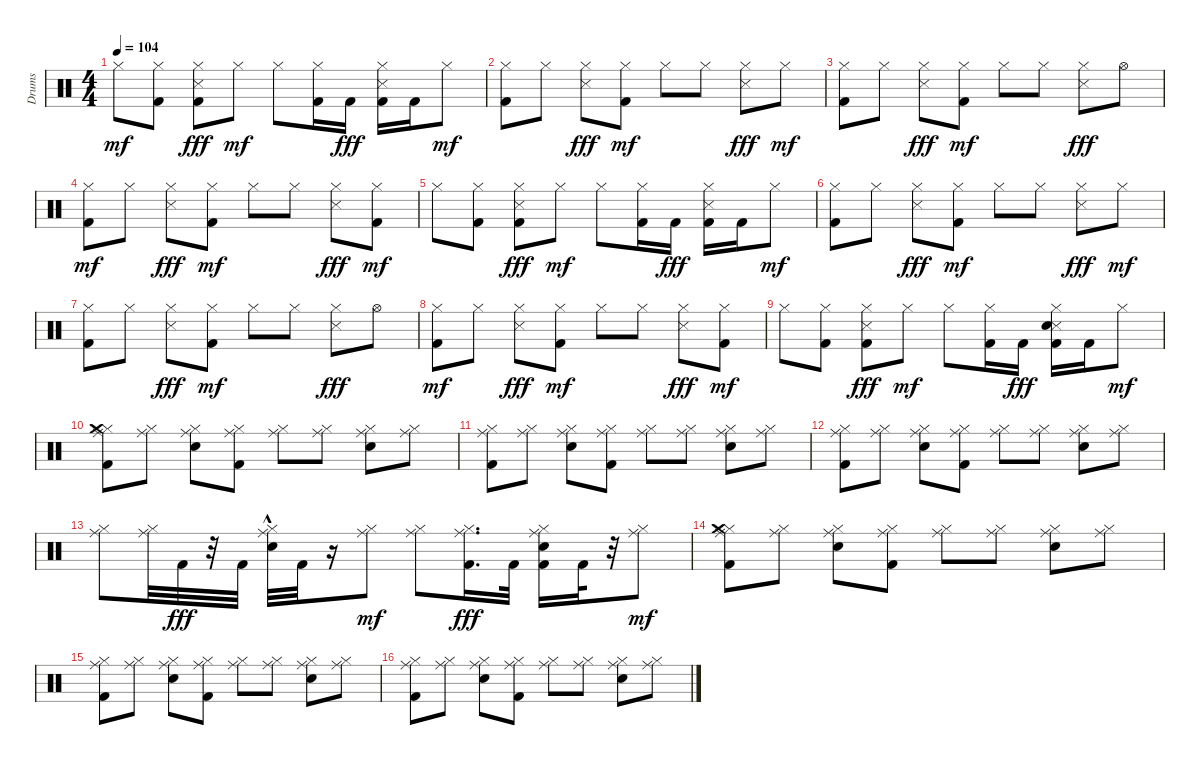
\track ("Drums" "Drums") {instrument percussion}
\staff {score}
\articulation defaults
\ts (4 4)
\tempo 104
\clef neutral
\ks c "Hi-Hat (closed)".8{dy mf}
("Kick (hit) 2" "Hi-Hat (closed)").8 ("Kick (hit) 2" "Hi-Hat (closed)" "Metronome (hit)").8{dy fff} "Hi-Hat (closed)".8{dy mf} "Hi-Hat (closed)".8 ("Kick (hit) 2" "Hi-Hat (closed)").16 "Kick (hit) 2".16{dy fff} ("Kick (hit) 2" "Hi-Hat (closed)" "Metronome (hit)").16 "Kick (hit) 2".16 "Hi-Hat (closed)".8{dy mf} |
("Kick (hit) 2" "Hi-Hat (closed)").8 "Hi-Hat (closed)".8 ("Hi-Hat (closed)" "Metronome (hit)").8{dy fff} ("Kick (hit) 2" "Hi-Hat (closed)").8{dy mf} "Hi-Hat (closed)".8 "Hi-Hat (closed)".8 ("Hi-Hat (closed)" "Metronome (hit)").8{dy fff} "Hi-Hat (closed)".8{dy mf} |
("Kick (hit) 2" "Hi-Hat (closed)").8 "Hi-Hat (closed)".8 ("Hi-Hat (closed)" "Metronome (hit)").8{dy fff} ("Kick (hit) 2" "Hi-Hat (closed)").8{dy mf} "Hi-Hat (closed)".8 "Hi-Hat (closed)".8 ("Hi-Hat (closed)" "Metronome (hit)").8{dy fff} "Hi-Hat (open)".8 |
("Kick (hit) 2" "Hi-Hat (closed)").8{dy mf} "Hi-Hat (closed)".8 ("Hi-Hat (closed)" "Metronome (hit)").8{dy fff} ("Kick (hit) 2" "Hi-Hat (closed)").8{dy mf} "Hi-Hat (closed)".8 "Hi-Hat (closed)".8 ("Hi-Hat (closed)" "Metronome (hit)").8{dy fff} ("Kick (hit) 2" "Hi-Hat (closed)").8{dy mf} |
"Hi-Hat (closed)".8 ("Kick (hit) 2" "Hi-Hat (closed)").8 ("Kick (hit) 2" "Hi-Hat (closed)" "Metronome (hit)").8{dy fff} "Hi-Hat (closed)".8{dy mf} "Hi-Hat (closed)".8 ("Kick (hit) 2" "Hi-Hat (closed)").16 "Kick (hit) 2".16{dy fff} ("Kick (hit) 2" "Hi-Hat (closed)" "Metronome (hit)").16 "Kick (hit) 2".16 "Hi-Hat (closed)".8{dy mf} |
("Kick (hit) 2" "Hi-Hat (closed)").8 "Hi-Hat (closed)".8 ("Hi-Hat (closed)" "Metronome (hit)").8{dy fff} ("Kick (hit) 2" "Hi-Hat (closed)").8{dy mf} "Hi-Hat (closed)".8 "Hi-Hat (closed)".8 ("Hi-Hat (closed)" "Metronome (hit)").8{dy fff} "Hi-Hat (closed)".8{dy mf} |
("Kick (hit) 2" "Hi-Hat (closed)").8 "Hi-Hat (closed)".8 ("Hi-Hat (closed)" "Metronome (hit)").8{dy fff} ("Kick (hit) 2" "Hi-Hat (closed)").8{dy mf} "Hi-Hat (closed)".8 "Hi-Hat (closed)".8 ("Hi-Hat (closed)" "Metronome (hit)").8{dy fff} "Hi-Hat (open)".8 |
("Kick (hit) 2" "Hi-Hat (closed)").8{dy mf} "Hi-Hat (closed)".8 ("Hi-Hat (closed)" "Metronome (hit)").8{dy fff} ("Kick (hit) 2" "Hi-Hat (closed)").8{dy mf} "Hi-Hat (closed)".8 "Hi-Hat (closed)".8 ("Hi-Hat (closed)" "Metronome (hit)").8{dy fff} ("Kick (hit) 2" "Hi-Hat (closed)").8{dy mf} |
"Hi-Hat (closed)".8 ("Kick (hit) 2" "Hi-Hat (closed)").8 ("Kick (hit) 2" "Hi-Hat (closed)" "Metronome (hit)").8{dy fff} "Hi-Hat (closed)".8{dy mf} "Hi-Hat (closed)".8 ("Kick (hit) 2" "Hi-Hat (closed)").16 "Kick (hit) 2".16{dy fff} ("Kick (hit) 2" "Hi-Hat (closed)" "Metronome (hit)" "Snare (hit) 2").16 "Kick (hit) 2".16 "Hi-Hat (closed)".8{dy mf} |
("Kick (hit) 2" "Hi-Hat (closed)" "Crash medium (hit)" "Ride (middle)").8 ("Hi-Hat (closed)" "Ride (middle)").8 ("Snare (hit) 2" "Hi-Hat (closed)" "Ride (middle)").8 ("Kick (hit) 2" "Hi-Hat (closed)" "Ride (middle)").8 ("Hi-Hat (closed)" "Ride (middle)").8 ("Hi-Hat (closed)" "Ride (middle)").8 ("Snare (hit) 2" "Hi-Hat (closed)" "Ride (middle)").8 ("Hi-Hat (closed)" "Ride (middle)").8 |
("Kick (hit) 2" "Hi-Hat (closed)" "Ride (middle)").8 ("Hi-Hat (closed)" "Ride (middle)").8 ("Snare (hit) 2" "Hi-Hat (closed)" "Ride (middle)").8 ("Kick (hit) 2" "Hi-Hat (closed)" "Ride (middle)").8 ("Hi-Hat (closed)" "Ride (middle)").8 ("Hi-Hat (closed)" "Ride (middle)").8 ("Snare (hit) 2" "Hi-Hat (closed)" "Ride (middle)").8 ("Hi-Hat (closed)" "Ride (middle)").8 |
("Kick (hit) 2" "Hi-Hat (closed)" "Ride (middle)").8 ("Hi-Hat (closed)" "Ride (middle)").8 ("Snare (hit) 2" "Hi-Hat (closed)" "Ride (middle)").8 ("Kick (hit) 2" "Hi-Hat (closed)" "Ride (middle)").8 ("Hi-Hat (closed)" "Ride (middle)").8 ("Hi-Hat (closed)" "Ride (middle)").8 ("Snare (hit) 2" "Hi-Hat (closed)" "Ride (middle)").8 ("Hi-Hat (closed)" "Ride (middle)").8 |
("Hi-Hat (closed)" "Ride (middle)").8 ("Hi-Hat (closed)" "Ride (middle)").32 "Kick (hit) 2".32{dy fff} r.32 "Kick (hit) 2".32 ("Hi-Hat (closed)" "Ride (middle)" "Snare (hit) 2"{hac}).32 "Kick (hit) 2".32 r.16 ("Hi-Hat (closed)" "Ride (middle)").8{dy mf} ("Hi-Hat (closed)" "Ride (middle)").8 ("Hi-Hat (closed)" "Ride (middle)" "Kick (hit) 2").16{d dy fff} "Kick (hit) 2".32 ("Snare (hit) 2" "Hi-Hat (closed)" "Ride (middle)" "Kick (hit) 2").16 "Kick (hit) 2".32 r.32 ("Hi-Hat (closed)" "Ride (middle)").8{dy mf} |
("Kick (hit) 2" "Hi-Hat (closed)" "Crash medium (hit)" "Ride (middle)").8 ("Hi-Hat (closed)" "Ride (middle)").8 ("Snare (hit) 2" "Hi-Hat (closed)" "Ride (middle)").8 ("Kick (hit) 2" "Hi-Hat (closed)" "Ride (middle)").8 ("Hi-Hat (closed)" "Ride (middle)").8 ("Hi-Hat (closed)" "Ride (middle)").8 ("Snare (hit) 2" "Hi-Hat (closed)" "Ride (middle)").8 ("Hi-Hat (closed)" "Ride (middle)").8 |
("Kick (hit) 2" "Hi-Hat (closed)" "Ride (middle)").8 ("Hi-Hat (closed)" "Ride (middle)").8 ("Snare (hit) 2" "Hi-Hat (closed)" "Ride (middle)").8 ("Kick (hit) 2" "Hi-Hat (closed)" "Ride (middle)").8 ("Hi-Hat (closed)" "Ride (middle)").8 ("Hi-Hat (closed)" "Ride (middle)").8 ("Snare (hit) 2" "Hi-Hat (closed)" "Ride (middle)").8 ("Hi-Hat (closed)" "Ride (middle)").8 |
("Kick (hit) 2" "Hi-Hat (closed)" "Ride (middle)").8 ("Hi-Hat (closed)" "Ride (middle)").8 ("Snare (hit) 2" "Hi-Hat (closed)" "Ride (middle)").8 ("Kick (hit) 2" "Hi-Hat (closed)" "Ride (middle)").8 ("Hi-Hat (closed)" "Ride (middle)").8 ("Hi-Hat (closed)" "Ride (middle)").8 ("Snare (hit) 2" "Hi-Hat (closed)" "Ride (middle)").8 ("Hi-Hat (closed)" "Ride (middle)").8
